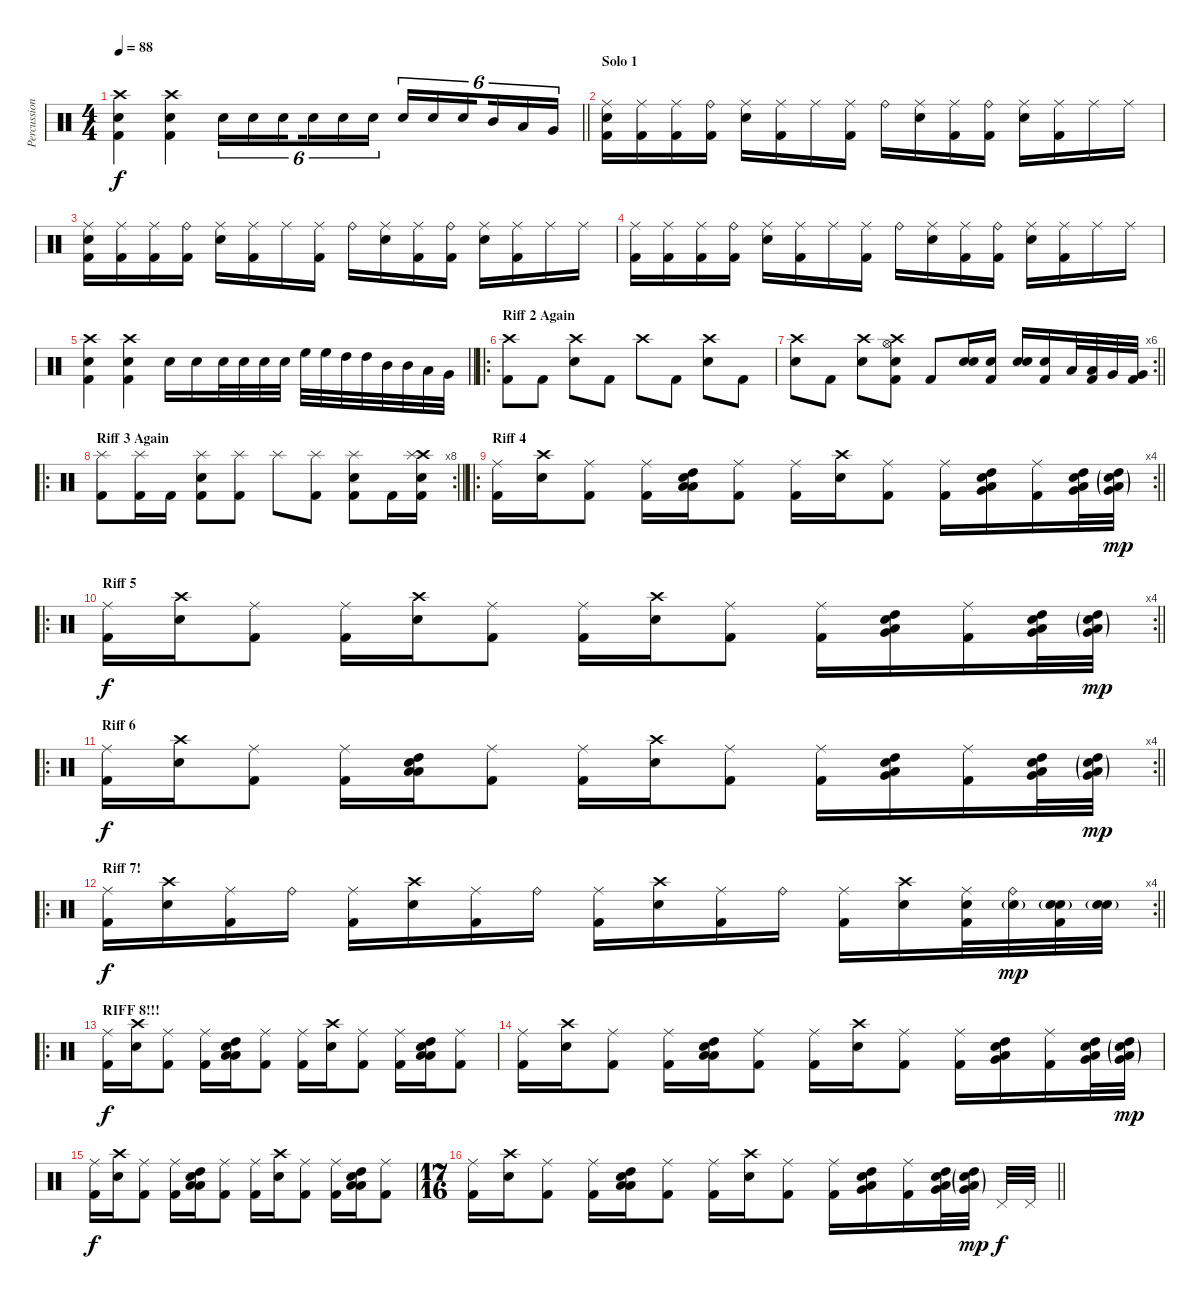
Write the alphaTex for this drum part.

\track ("Percussion" "Percussion") {instrument percussion}
\staff {score}
\articulation defaults
\ts (4 4)
\tempo 88
\clef neutral
\barLineRight lightlight
\ks c
("Crash high (hit)" "Snare (hit) 2" "Kick (hit) 2").4{dy f} ("Crash high (hit)" "Snare (hit) 2" "Kick (hit) 2").4 "Snare (hit) 2".16{tu (6 4)} "Snare (hit) 2".16{tu (6 4)} "Snare (hit) 2".16{tu (6 4) beam splitsecondary} "Snare (hit) 2".16{tu (6 4)} "Snare (hit) 2".16{tu (6 4)} "Snare (hit) 2".16{tu (6 4)} "Snare (hit) 2".16{tu (6 4)} "Snare (hit) 2".16{tu (6 4)} "Snare (hit) 2".16{tu (6 4) beam splitsecondary} "Mid Tom (hit)".16{tu (6 4)} "Low Tom (hit)".16{tu (6 4)} "Very Low Tom (hit)".16{tu (6 4)} |
\section ("" "Solo 1")
("Ride (middle)" "Snare (hit) 2" "Kick (hit) 2").16 ("Ride (middle)" "Kick (hit) 2").16 ("Ride (middle)" "Kick (hit) 2").16 ("Ride (bell)" "Kick (hit) 2").16 ("Ride (middle)" "Snare (hit) 2").16 ("Ride (middle)" "Kick (hit) 2").16 "Ride (middle)".16 ("Ride (middle)" "Kick (hit) 2").16 "Ride (bell)".16 ("Ride (middle)" "Snare (hit) 2").16 ("Ride (middle)" "Kick (hit) 2").16 ("Ride (bell)" "Kick (hit) 2").16 ("Ride (middle)" "Snare (hit) 2").16 ("Ride (middle)" "Kick (hit) 2").16 "Ride (middle)".16 "Ride (middle)".16 |
("Ride (middle)" "Snare (hit) 2" "Kick (hit) 2").16 ("Ride (middle)" "Kick (hit) 2").16 ("Ride (middle)" "Kick (hit) 2").16 ("Ride (bell)" "Kick (hit) 2").16 ("Ride (middle)" "Snare (hit) 2").16 ("Ride (middle)" "Kick (hit) 2").16 "Ride (middle)".16 ("Ride (middle)" "Kick (hit) 2").16 "Ride (bell)".16 ("Ride (middle)" "Snare (hit) 2").16 ("Ride (middle)" "Kick (hit) 2").16 ("Ride (bell)" "Kick (hit) 2").16 ("Ride (middle)" "Snare (hit) 2").16 ("Ride (middle)" "Kick (hit) 2").16 "Ride (middle)".16 "Ride (middle)".16 |
("Ride (middle)" "Kick (hit) 2").16 ("Ride (middle)" "Kick (hit) 2").16 ("Ride (middle)" "Kick (hit) 2").16 ("Ride (bell)" "Kick (hit) 2").16 ("Ride (middle)" "Snare (hit) 2").16 ("Ride (middle)" "Kick (hit) 2").16 "Ride (middle)".16 ("Ride (middle)" "Kick (hit) 2").16 "Ride (bell)".16 ("Ride (middle)" "Snare (hit) 2").16 ("Ride (middle)" "Kick (hit) 2").16 ("Ride (bell)" "Kick (hit) 2").16 ("Ride (middle)" "Snare (hit) 2").16 ("Ride (middle)" "Kick (hit) 2").16 "Ride (middle)".16 "Ride (middle)".16 |
\barLineRight lightlight
("Crash high (hit)" "Snare (hit) 2" "Kick (hit) 2").4 ("Crash high (hit)" "Snare (hit) 2" "Kick (hit) 2").4 "Snare (hit) 2".16 "Snare (hit) 2".16 "Snare (hit) 2".32 "Snare (hit) 2".32 "Snare (hit) 2".32 "Snare (hit) 2".32 "High Floor Tom (hit)".32 "High Floor Tom (hit)".32 "High Tom (hit)".32 "High Tom (hit)".32 "Mid Tom (hit)".32 "Mid Tom (hit)".32 "Low Tom (hit)".32 "Very Low Tom (hit)".32 |
\ro
\section ("" "Riff 2 Again")
("Crash high (hit)" "Kick (hit) 2").8 "Kick (hit) 2".8 ("Crash high (hit)" "Snare (hit) 2").8 "Kick (hit) 2".8 "Crash high (hit)".8 "Kick (hit) 2".8 ("Crash high (hit)" "Snare (hit) 2").8 "Kick (hit) 2".8 |
\rc 6
\barLineRight lightlight
("Crash high (hit)" "Snare (hit) 2").8 "Kick (hit) 2".8 ("Crash high (hit)" "Snare (hit) 2").8 ("Crash high (hit)" "Hi-Hat (open)" "Snare (hit) 2" "Kick (hit) 2").8 "Kick (hit) 2".8 ("Snare (hit) 2" "Snare (hit) 2").16 ("Snare (hit) 2" "Kick (hit) 2").16 ("Snare (hit) 2" "Snare (hit) 2").16 ("Snare (hit) 2" "Kick (hit) 2").16 "Low Tom (hit)".32 ("Low Tom (hit)" "Kick (hit) 2").32 "Very Low Tom (hit)".32 ("Very Low Tom (hit)" "Kick (hit) 2").32 |
\ro
\rc 8
\section ("" "Riff 3 Again")
\barLineRight lightlight
("Splash (hit)" "Kick (hit) 2").8 ("Splash (hit)" "Kick (hit) 2").16 "Kick (hit) 2".16 ("Splash (hit)" "Snare (hit) 2" "Kick (hit) 2").8 ("Splash (hit)" "Kick (hit) 2").8 "Splash (hit)".8 ("Splash (hit)" "Kick (hit) 2").8 ("Splash (hit)" "Snare (hit) 2" "Kick (hit) 2").8 "Kick (hit) 2".16 ("Crash high (hit)" "Splash (hit)" "Snare (hit) 2" "Kick (hit) 2").16 |
\ro
\rc 4
\section ("" "Riff 4")
\barLineRight lightlight
("Ride (middle)" "Kick (hit) 2").16 ("Crash high (hit)" "Electric Snare (hit)").16 ("Ride (middle)" "Kick (hit) 2").8 ("Ride (middle)" "Kick (hit) 2").16 ("Low Tom (hit)" "High Tom (hit)" "Snare (hit) 2" "Low Tom (hit)").16{bd 480} ("Ride (middle)" "Kick (hit) 2").8 ("Ride (middle)" "Kick (hit) 2").16 ("Crash high (hit)" "Electric Snare (hit)").16 ("Ride (middle)" "Kick (hit) 2").8 ("Ride (middle)" "Kick (hit) 2").16 ("Very Low Tom (hit)" "High Tom (hit)" "Snare (hit) 2" "Low Tom (hit)").16{bd 480} ("Ride (middle)" "Kick (hit) 2").16 ("Very Low Tom (hit)" "High Tom (hit)" "Low Tom (hit)" "Snare (hit) 2").32 ("Very Low Tom (hit)"{g} "High Tom (hit)"{g} "Low Tom (hit)"{g} "Snare (hit) 2"{g}).32{dy mp} |
\ro
\rc 4
\section ("" "Riff 5")
\barLineRight lightlight
("Ride (middle)" "Kick (hit) 2").16{dy f} ("Crash high (hit)" "Electric Snare (hit)").16 ("Ride (middle)" "Kick (hit) 2").8 ("Ride (middle)" "Kick (hit) 2").16 ("Crash high (hit)" "Electric Snare (hit)").16 ("Ride (middle)" "Kick (hit) 2").8 ("Ride (middle)" "Kick (hit) 2").16 ("Crash high (hit)" "Electric Snare (hit)").16 ("Ride (middle)" "Kick (hit) 2").8 ("Ride (middle)" "Kick (hit) 2").16 ("Very Low Tom (hit)" "High Tom (hit)" "Snare (hit) 2" "Low Tom (hit)").16{bd 480} ("Ride (middle)" "Kick (hit) 2").16 ("Very Low Tom (hit)" "High Tom (hit)" "Low Tom (hit)" "Snare (hit) 2").32 ("Very Low Tom (hit)"{g} "High Tom (hit)"{g} "Low Tom (hit)"{g} "Snare (hit) 2"{g}).32{dy mp} |
\ro
\rc 4
\section ("" "Riff 6")
\barLineRight lightlight
("Ride (middle)" "Kick (hit) 2").16{dy f} ("Crash high (hit)" "Electric Snare (hit)").16 ("Ride (middle)" "Kick (hit) 2").8 ("Ride (middle)" "Kick (hit) 2").16 ("Low Tom (hit)" "High Tom (hit)" "Snare (hit) 2" "Low Tom (hit)").16{bd 480} ("Ride (middle)" "Kick (hit) 2").8 ("Ride (middle)" "Kick (hit) 2").16 ("Crash high (hit)" "Electric Snare (hit)").16 ("Ride (middle)" "Kick (hit) 2").8 ("Ride (middle)" "Kick (hit) 2").16 ("Very Low Tom (hit)" "High Tom (hit)" "Snare (hit) 2" "Low Tom (hit)").16{bd 480} ("Ride (middle)" "Kick (hit) 2").16 ("Very Low Tom (hit)" "High Tom (hit)" "Low Tom (hit)" "Snare (hit) 2").32 ("Very Low Tom (hit)"{g} "High Tom (hit)"{g} "Low Tom (hit)"{g} "Snare (hit) 2"{g}).32{dy mp} |
\ro
\rc 4
\section ("" "Riff 7!")
\barLineRight lightlight
("Ride (middle)" "Kick (hit) 2").16{dy f} ("Crash high (hit)" "Electric Snare (hit)").16 ("Ride (middle)" "Kick (hit) 2").16 "Ride (bell)".16 ("Ride (middle)" "Kick (hit) 2").16 ("Crash high (hit)" "Electric Snare (hit)").16 ("Ride (middle)" "Kick (hit) 2").16 "Ride (bell)".16 ("Ride (middle)" "Kick (hit) 2").16 ("Crash high (hit)" "Electric Snare (hit)").16 ("Ride (middle)" "Kick (hit) 2").16 "Ride (bell)".16 ("Ride (middle)" "Kick (hit) 2").16 ("Crash high (hit)" "Electric Snare (hit)").16 ("Ride (middle)" "Snare (hit) 2" "Kick (hit) 2").32 ("Ride (bell)" "Snare (hit) 2"{g}).32{dy mp} ("Electric Snare (hit)"{g} "Snare (hit) 2"{g} "Kick (hit) 2").32 ("Electric Snare (hit)"{g} "Snare (hit) 2"{g}).32 |
\ro
\section ("" "RIFF 8!!!")
("Ride (middle)" "Kick (hit) 2").16{dy f} ("Crash high (hit)" "Electric Snare (hit)").16 ("Ride (middle)" "Kick (hit) 2").8 ("Ride (middle)" "Kick (hit) 2").16 ("Low Tom (hit)" "High Tom (hit)" "Snare (hit) 2" "Low Tom (hit)").16{bd 480} ("Ride (middle)" "Kick (hit) 2").8 ("Ride (middle)" "Kick (hit) 2").16 ("Crash high (hit)" "Electric Snare (hit)").16 ("Ride (middle)" "Kick (hit) 2").8 ("Ride (middle)" "Kick (hit) 2").16 ("Low Tom (hit)" "High Tom (hit)" "Snare (hit) 2" "Low Tom (hit)").16{bd 480} ("Ride (middle)" "Kick (hit) 2").8 |
("Ride (middle)" "Kick (hit) 2").16 ("Crash high (hit)" "Electric Snare (hit)").16 ("Ride (middle)" "Kick (hit) 2").8 ("Ride (middle)" "Kick (hit) 2").16 ("Low Tom (hit)" "High Tom (hit)" "Snare (hit) 2" "Low Tom (hit)").16{bd 480} ("Ride (middle)" "Kick (hit) 2").8 ("Ride (middle)" "Kick (hit) 2").16 ("Crash high (hit)" "Electric Snare (hit)").16 ("Ride (middle)" "Kick (hit) 2").8 ("Ride (middle)" "Kick (hit) 2").16 ("Very Low Tom (hit)" "High Tom (hit)" "Snare (hit) 2" "Low Tom (hit)").16{bd 480} ("Ride (middle)" "Kick (hit) 2").16 ("Very Low Tom (hit)" "High Tom (hit)" "Low Tom (hit)" "Snare (hit) 2").32 ("Very Low Tom (hit)"{g} "High Tom (hit)"{g} "Low Tom (hit)"{g} "Snare (hit) 2"{g}).32{dy mp} |
("Ride (middle)" "Kick (hit) 2").16{dy f} ("Crash high (hit)" "Electric Snare (hit)").16 ("Ride (middle)" "Kick (hit) 2").8 ("Ride (middle)" "Kick (hit) 2").16 ("Low Tom (hit)" "High Tom (hit)" "Snare (hit) 2" "Low Tom (hit)").16{bd 480} ("Ride (middle)" "Kick (hit) 2").8 ("Ride (middle)" "Kick (hit) 2").16 ("Crash high (hit)" "Electric Snare (hit)").16 ("Ride (middle)" "Kick (hit) 2").8 ("Ride (middle)" "Kick (hit) 2").16 ("Low Tom (hit)" "High Tom (hit)" "Snare (hit) 2" "Low Tom (hit)").16{bd 480} ("Ride (middle)" "Kick (hit) 2").8 |
\ts (17 16)
\barLineRight lightlight
("Ride (middle)" "Kick (hit) 2").16 ("Crash high (hit)" "Electric Snare (hit)").16 ("Ride (middle)" "Kick (hit) 2").8 ("Ride (middle)" "Kick (hit) 2").16 ("Low Tom (hit)" "High Tom (hit)" "Snare (hit) 2" "Low Tom (hit)").16{bd 480} ("Ride (middle)" "Kick (hit) 2").8 ("Ride (middle)" "Kick (hit) 2").16 ("Crash high (hit)" "Electric Snare (hit)").16 ("Ride (middle)" "Kick (hit) 2").8 ("Ride (middle)" "Kick (hit) 2").16 ("Very Low Tom (hit)" "High Tom (hit)" "Snare (hit) 2" "Low Tom (hit)").16{bd 480} ("Ride (middle)" "Kick (hit) 2").16 ("Very Low Tom (hit)" "High Tom (hit)" "Low Tom (hit)" "Snare (hit) 2").32 ("Very Low Tom (hit)"{g} "High Tom (hit)"{g} "Low Tom (hit)"{g} "Snare (hit) 2"{g}).32{dy mp} "Pedal Hi-Hat (hit)".32{dy f} "Pedal Hi-Hat (hit)".32
